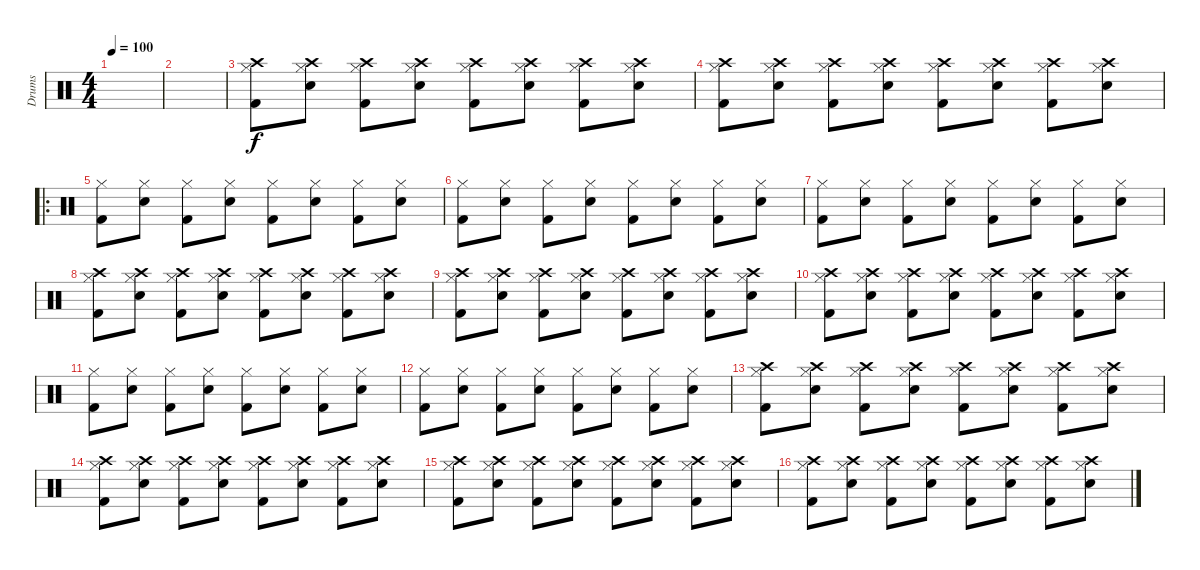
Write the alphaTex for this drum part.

\track ("Drums" "Drums") {instrument percussion}
\staff {score}
\articulation defaults
\ts (4 4)
\tempo 100
\clef neutral
\ks c
|
|
("Crash high (hit)" "Hi-Hat (closed)" "Kick (hit) 2").8 ("Crash high (hit)" "Hi-Hat (closed)" "Electric Snare (hit)").8 ("Crash high (hit)" "Hi-Hat (closed)" "Kick (hit) 2").8 ("Crash high (hit)" "Hi-Hat (closed)" "Electric Snare (hit)").8 ("Crash high (hit)" "Hi-Hat (closed)" "Kick (hit) 2").8 ("Crash high (hit)" "Hi-Hat (closed)" "Electric Snare (hit)").8 ("Crash high (hit)" "Hi-Hat (closed)" "Kick (hit) 2").8 ("Crash high (hit)" "Hi-Hat (closed)" "Electric Snare (hit)").8 |
("Crash high (hit)" "Hi-Hat (closed)" "Kick (hit) 2").8 ("Crash high (hit)" "Hi-Hat (closed)" "Electric Snare (hit)").8 ("Crash high (hit)" "Hi-Hat (closed)" "Kick (hit) 2").8 ("Crash high (hit)" "Hi-Hat (closed)" "Electric Snare (hit)").8 ("Crash high (hit)" "Hi-Hat (closed)" "Kick (hit) 2").8 ("Crash high (hit)" "Hi-Hat (closed)" "Electric Snare (hit)").8 ("Crash high (hit)" "Hi-Hat (closed)" "Kick (hit) 2").8 ("Crash high (hit)" "Hi-Hat (closed)" "Electric Snare (hit)").8 |
\ro
("Hi-Hat (closed)" "Kick (hit) 2").8 ("Hi-Hat (closed)" "Electric Snare (hit)").8 ("Hi-Hat (closed)" "Kick (hit) 2").8 ("Hi-Hat (closed)" "Electric Snare (hit)").8 ("Hi-Hat (closed)" "Kick (hit) 2").8 ("Hi-Hat (closed)" "Electric Snare (hit)").8 ("Hi-Hat (closed)" "Kick (hit) 2").8 ("Hi-Hat (closed)" "Electric Snare (hit)").8 |
("Hi-Hat (closed)" "Kick (hit) 2").8 ("Hi-Hat (closed)" "Electric Snare (hit)").8 ("Hi-Hat (closed)" "Kick (hit) 2").8 ("Hi-Hat (closed)" "Electric Snare (hit)").8 ("Hi-Hat (closed)" "Kick (hit) 2").8 ("Hi-Hat (closed)" "Electric Snare (hit)").8 ("Hi-Hat (closed)" "Kick (hit) 2").8 ("Hi-Hat (closed)" "Electric Snare (hit)").8 |
("Hi-Hat (closed)" "Kick (hit) 2").8 ("Hi-Hat (closed)" "Electric Snare (hit)").8 ("Hi-Hat (closed)" "Kick (hit) 2").8 ("Hi-Hat (closed)" "Electric Snare (hit)").8 ("Hi-Hat (closed)" "Kick (hit) 2").8 ("Hi-Hat (closed)" "Electric Snare (hit)").8 ("Hi-Hat (closed)" "Kick (hit) 2").8 ("Hi-Hat (closed)" "Electric Snare (hit)").8 |
("Crash high (hit)" "Hi-Hat (closed)" "Kick (hit) 2").8 ("Crash high (hit)" "Hi-Hat (closed)" "Electric Snare (hit)").8 ("Crash high (hit)" "Hi-Hat (closed)" "Kick (hit) 2").8 ("Crash high (hit)" "Hi-Hat (closed)" "Electric Snare (hit)").8 ("Crash high (hit)" "Hi-Hat (closed)" "Kick (hit) 2").8 ("Crash high (hit)" "Hi-Hat (closed)" "Electric Snare (hit)").8 ("Crash high (hit)" "Hi-Hat (closed)" "Kick (hit) 2").8 ("Crash high (hit)" "Hi-Hat (closed)" "Electric Snare (hit)").8 |
("Crash high (hit)" "Hi-Hat (closed)" "Kick (hit) 2").8 ("Crash high (hit)" "Hi-Hat (closed)" "Electric Snare (hit)").8 ("Crash high (hit)" "Hi-Hat (closed)" "Kick (hit) 2").8 ("Crash high (hit)" "Hi-Hat (closed)" "Electric Snare (hit)").8 ("Crash high (hit)" "Hi-Hat (closed)" "Kick (hit) 2").8 ("Crash high (hit)" "Hi-Hat (closed)" "Electric Snare (hit)").8 ("Crash high (hit)" "Hi-Hat (closed)" "Kick (hit) 2").8 ("Crash high (hit)" "Hi-Hat (closed)" "Electric Snare (hit)").8 |
("Crash high (hit)" "Hi-Hat (closed)" "Kick (hit) 2").8 ("Crash high (hit)" "Hi-Hat (closed)" "Electric Snare (hit)").8 ("Crash high (hit)" "Hi-Hat (closed)" "Kick (hit) 2").8 ("Crash high (hit)" "Hi-Hat (closed)" "Electric Snare (hit)").8 ("Crash high (hit)" "Hi-Hat (closed)" "Kick (hit) 2").8 ("Crash high (hit)" "Hi-Hat (closed)" "Electric Snare (hit)").8 ("Crash high (hit)" "Hi-Hat (closed)" "Kick (hit) 2").8 ("Crash high (hit)" "Hi-Hat (closed)" "Electric Snare (hit)").8 |
("Hi-Hat (closed)" "Kick (hit) 2").8 ("Hi-Hat (closed)" "Electric Snare (hit)").8 ("Hi-Hat (closed)" "Kick (hit) 2").8 ("Hi-Hat (closed)" "Electric Snare (hit)").8 ("Hi-Hat (closed)" "Kick (hit) 2").8 ("Hi-Hat (closed)" "Electric Snare (hit)").8 ("Hi-Hat (closed)" "Kick (hit) 2").8 ("Hi-Hat (closed)" "Electric Snare (hit)").8 |
("Hi-Hat (closed)" "Kick (hit) 2").8 ("Hi-Hat (closed)" "Electric Snare (hit)").8 ("Hi-Hat (closed)" "Kick (hit) 2").8 ("Hi-Hat (closed)" "Electric Snare (hit)").8 ("Hi-Hat (closed)" "Kick (hit) 2").8 ("Hi-Hat (closed)" "Electric Snare (hit)").8 ("Hi-Hat (closed)" "Kick (hit) 2").8 ("Hi-Hat (closed)" "Electric Snare (hit)").8 |
("Crash high (hit)" "Hi-Hat (closed)" "Kick (hit) 2").8 ("Crash high (hit)" "Hi-Hat (closed)" "Electric Snare (hit)").8 ("Crash high (hit)" "Hi-Hat (closed)" "Kick (hit) 2").8 ("Crash high (hit)" "Hi-Hat (closed)" "Electric Snare (hit)").8 ("Crash high (hit)" "Hi-Hat (closed)" "Kick (hit) 2").8 ("Crash high (hit)" "Hi-Hat (closed)" "Electric Snare (hit)").8 ("Crash high (hit)" "Hi-Hat (closed)" "Kick (hit) 2").8 ("Crash high (hit)" "Hi-Hat (closed)" "Electric Snare (hit)").8 |
("Crash high (hit)" "Hi-Hat (closed)" "Kick (hit) 2").8 ("Crash high (hit)" "Hi-Hat (closed)" "Electric Snare (hit)").8 ("Crash high (hit)" "Hi-Hat (closed)" "Kick (hit) 2").8 ("Crash high (hit)" "Hi-Hat (closed)" "Electric Snare (hit)").8 ("Crash high (hit)" "Hi-Hat (closed)" "Kick (hit) 2").8 ("Crash high (hit)" "Hi-Hat (closed)" "Electric Snare (hit)").8 ("Crash high (hit)" "Hi-Hat (closed)" "Kick (hit) 2").8 ("Crash high (hit)" "Hi-Hat (closed)" "Electric Snare (hit)").8 |
("Crash high (hit)" "Hi-Hat (closed)" "Kick (hit) 2").8 ("Crash high (hit)" "Hi-Hat (closed)" "Electric Snare (hit)").8 ("Crash high (hit)" "Hi-Hat (closed)" "Kick (hit) 2").8 ("Crash high (hit)" "Hi-Hat (closed)" "Electric Snare (hit)").8 ("Crash high (hit)" "Hi-Hat (closed)" "Kick (hit) 2").8 ("Crash high (hit)" "Hi-Hat (closed)" "Electric Snare (hit)").8 ("Crash high (hit)" "Hi-Hat (closed)" "Kick (hit) 2").8 ("Crash high (hit)" "Hi-Hat (closed)" "Electric Snare (hit)").8 |
("Crash high (hit)" "Hi-Hat (closed)" "Kick (hit) 2").8 ("Crash high (hit)" "Hi-Hat (closed)" "Electric Snare (hit)").8 ("Crash high (hit)" "Hi-Hat (closed)" "Kick (hit) 2").8 ("Crash high (hit)" "Hi-Hat (closed)" "Electric Snare (hit)").8 ("Crash high (hit)" "Hi-Hat (closed)" "Kick (hit) 2").8 ("Crash high (hit)" "Hi-Hat (closed)" "Electric Snare (hit)").8 ("Crash high (hit)" "Hi-Hat (closed)" "Kick (hit) 2").8 ("Crash high (hit)" "Hi-Hat (closed)" "Electric Snare (hit)").8
